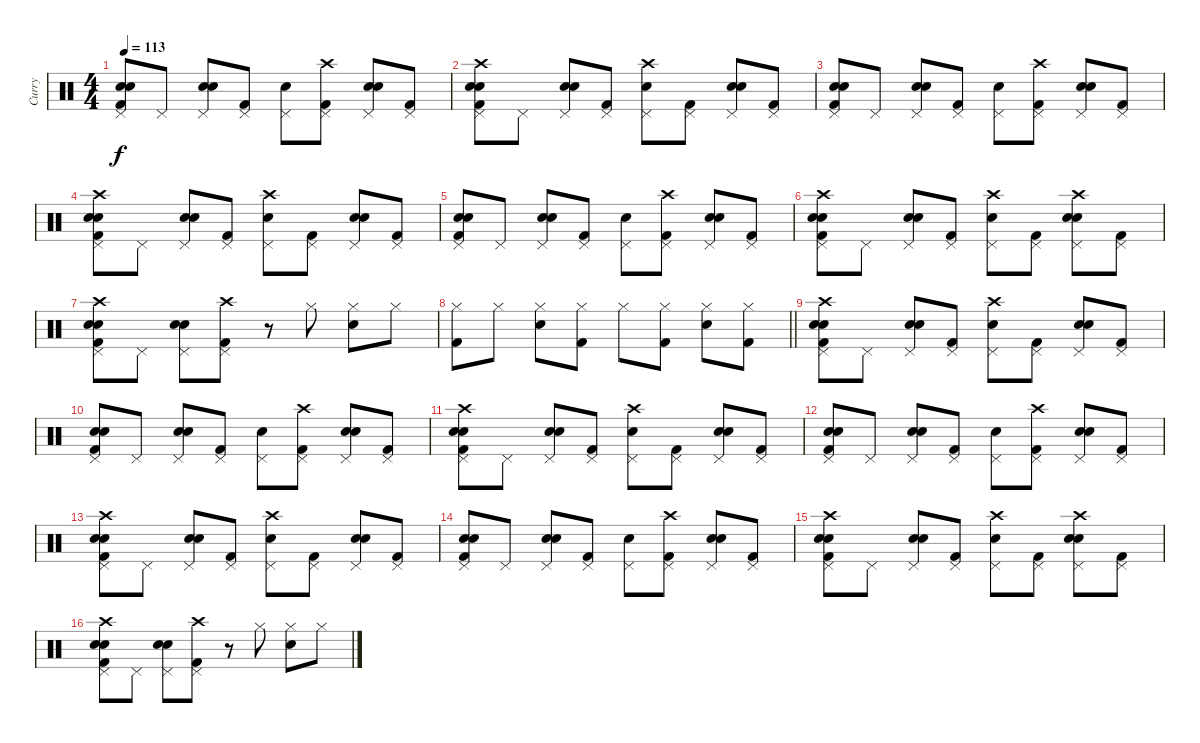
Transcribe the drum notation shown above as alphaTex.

\track ("Curry" "Curry") {instrument percussion}
\staff {score}
\articulation defaults
\ts (4 4)
\tempo 113
\clef neutral
\ks c
("Pedal Hi-Hat (hit)" "Kick (hit) 2" "Electric Snare (hit)" "Snare (hit) 2").8{dy f} "Pedal Hi-Hat (hit)".8 ("Pedal Hi-Hat (hit)" "Electric Snare (hit)" "Snare (hit) 2").8 ("Pedal Hi-Hat (hit)" "Kick (hit) 2").8 ("Pedal Hi-Hat (hit)" "Snare (hit) 2").8 ("Pedal Hi-Hat (hit)" "Kick (hit) 2" "Crash high (hit)").8 ("Pedal Hi-Hat (hit)" "Electric Snare (hit)" "Snare (hit) 2").8 ("Pedal Hi-Hat (hit)" "Kick (hit) 2").8 |
("Pedal Hi-Hat (hit)" "Kick (hit) 2" "Electric Snare (hit)" "Snare (hit) 2" "Crash high (hit)").8 "Pedal Hi-Hat (hit)".8 ("Pedal Hi-Hat (hit)" "Electric Snare (hit)" "Snare (hit) 2").8 ("Pedal Hi-Hat (hit)" "Kick (hit) 2").8 ("Pedal Hi-Hat (hit)" "Snare (hit) 2" "Crash high (hit)").8 ("Pedal Hi-Hat (hit)" "Kick (hit) 2").8 ("Pedal Hi-Hat (hit)" "Electric Snare (hit)" "Snare (hit) 2").8 ("Pedal Hi-Hat (hit)" "Kick (hit) 2").8 |
("Pedal Hi-Hat (hit)" "Kick (hit) 2" "Electric Snare (hit)" "Snare (hit) 2").8 "Pedal Hi-Hat (hit)".8 ("Pedal Hi-Hat (hit)" "Electric Snare (hit)" "Snare (hit) 2").8 ("Pedal Hi-Hat (hit)" "Kick (hit) 2").8 ("Pedal Hi-Hat (hit)" "Snare (hit) 2").8 ("Pedal Hi-Hat (hit)" "Kick (hit) 2" "Crash high (hit)").8 ("Pedal Hi-Hat (hit)" "Electric Snare (hit)" "Snare (hit) 2").8 ("Pedal Hi-Hat (hit)" "Kick (hit) 2").8 |
("Pedal Hi-Hat (hit)" "Kick (hit) 2" "Electric Snare (hit)" "Snare (hit) 2" "Crash high (hit)").8 "Pedal Hi-Hat (hit)".8 ("Pedal Hi-Hat (hit)" "Electric Snare (hit)" "Snare (hit) 2").8 ("Pedal Hi-Hat (hit)" "Kick (hit) 2").8 ("Pedal Hi-Hat (hit)" "Snare (hit) 2" "Crash high (hit)").8 ("Pedal Hi-Hat (hit)" "Kick (hit) 2").8 ("Pedal Hi-Hat (hit)" "Electric Snare (hit)" "Snare (hit) 2").8 ("Pedal Hi-Hat (hit)" "Kick (hit) 2").8 |
("Pedal Hi-Hat (hit)" "Kick (hit) 2" "Electric Snare (hit)" "Snare (hit) 2").8 "Pedal Hi-Hat (hit)".8 ("Pedal Hi-Hat (hit)" "Electric Snare (hit)" "Snare (hit) 2").8 ("Pedal Hi-Hat (hit)" "Kick (hit) 2").8 ("Pedal Hi-Hat (hit)" "Snare (hit) 2").8 ("Pedal Hi-Hat (hit)" "Kick (hit) 2" "Crash high (hit)").8 ("Pedal Hi-Hat (hit)" "Electric Snare (hit)" "Snare (hit) 2").8 ("Pedal Hi-Hat (hit)" "Kick (hit) 2").8 |
("Pedal Hi-Hat (hit)" "Kick (hit) 2" "Electric Snare (hit)" "Snare (hit) 2" "Crash high (hit)").8 "Pedal Hi-Hat (hit)".8 ("Pedal Hi-Hat (hit)" "Electric Snare (hit)" "Snare (hit) 2").8 ("Pedal Hi-Hat (hit)" "Kick (hit) 2").8 ("Pedal Hi-Hat (hit)" "Snare (hit) 2" "Crash high (hit)").8 ("Pedal Hi-Hat (hit)" "Kick (hit) 2").8 ("Pedal Hi-Hat (hit)" "Electric Snare (hit)" "Snare (hit) 2" "Crash high (hit)").8 ("Pedal Hi-Hat (hit)" "Kick (hit) 2").8 |
("Pedal Hi-Hat (hit)" "Kick (hit) 2" "Electric Snare (hit)" "Snare (hit) 2" "Crash high (hit)").8 "Pedal Hi-Hat (hit)".8 ("Pedal Hi-Hat (hit)" "Electric Snare (hit)" "Snare (hit) 2").8 ("Pedal Hi-Hat (hit)" "Kick (hit) 2" "Crash high (hit)").8 r.8 "Hi-Hat (closed)".8 ("Hi-Hat (closed)" "Snare (hit) 2").8 "Hi-Hat (closed)".8 |
\barLineRight lightlight
("Hi-Hat (closed)" "Kick (hit) 2").8 "Hi-Hat (closed)".8 ("Hi-Hat (closed)" "Snare (hit) 2").8 ("Hi-Hat (closed)" "Kick (hit) 2").8 "Hi-Hat (closed)".8 ("Hi-Hat (closed)" "Kick (hit) 2").8 ("Hi-Hat (closed)" "Snare (hit) 2").8 ("Hi-Hat (closed)" "Kick (hit) 2").8 |
("Pedal Hi-Hat (hit)" "Kick (hit) 2" "Electric Snare (hit)" "Snare (hit) 2" "Crash high (hit)").8 "Pedal Hi-Hat (hit)".8 ("Pedal Hi-Hat (hit)" "Electric Snare (hit)" "Snare (hit) 2").8 ("Pedal Hi-Hat (hit)" "Kick (hit) 2").8 ("Pedal Hi-Hat (hit)" "Snare (hit) 2" "Crash high (hit)").8 ("Pedal Hi-Hat (hit)" "Kick (hit) 2").8 ("Pedal Hi-Hat (hit)" "Electric Snare (hit)" "Snare (hit) 2").8 ("Pedal Hi-Hat (hit)" "Kick (hit) 2").8 |
("Pedal Hi-Hat (hit)" "Kick (hit) 2" "Electric Snare (hit)" "Snare (hit) 2").8 "Pedal Hi-Hat (hit)".8 ("Pedal Hi-Hat (hit)" "Electric Snare (hit)" "Snare (hit) 2").8 ("Pedal Hi-Hat (hit)" "Kick (hit) 2").8 ("Pedal Hi-Hat (hit)" "Snare (hit) 2").8 ("Pedal Hi-Hat (hit)" "Kick (hit) 2" "Crash high (hit)").8 ("Pedal Hi-Hat (hit)" "Electric Snare (hit)" "Snare (hit) 2").8 ("Pedal Hi-Hat (hit)" "Kick (hit) 2").8 |
("Pedal Hi-Hat (hit)" "Kick (hit) 2" "Electric Snare (hit)" "Snare (hit) 2" "Crash high (hit)").8 "Pedal Hi-Hat (hit)".8 ("Pedal Hi-Hat (hit)" "Electric Snare (hit)" "Snare (hit) 2").8 ("Pedal Hi-Hat (hit)" "Kick (hit) 2").8 ("Pedal Hi-Hat (hit)" "Snare (hit) 2" "Crash high (hit)").8 ("Pedal Hi-Hat (hit)" "Kick (hit) 2").8 ("Pedal Hi-Hat (hit)" "Electric Snare (hit)" "Snare (hit) 2").8 ("Pedal Hi-Hat (hit)" "Kick (hit) 2").8 |
("Pedal Hi-Hat (hit)" "Kick (hit) 2" "Electric Snare (hit)" "Snare (hit) 2").8 "Pedal Hi-Hat (hit)".8 ("Pedal Hi-Hat (hit)" "Electric Snare (hit)" "Snare (hit) 2").8 ("Pedal Hi-Hat (hit)" "Kick (hit) 2").8 ("Pedal Hi-Hat (hit)" "Snare (hit) 2").8 ("Pedal Hi-Hat (hit)" "Kick (hit) 2" "Crash high (hit)").8 ("Pedal Hi-Hat (hit)" "Electric Snare (hit)" "Snare (hit) 2").8 ("Pedal Hi-Hat (hit)" "Kick (hit) 2").8 |
("Pedal Hi-Hat (hit)" "Kick (hit) 2" "Electric Snare (hit)" "Snare (hit) 2" "Crash high (hit)").8 "Pedal Hi-Hat (hit)".8 ("Pedal Hi-Hat (hit)" "Electric Snare (hit)" "Snare (hit) 2").8 ("Pedal Hi-Hat (hit)" "Kick (hit) 2").8 ("Pedal Hi-Hat (hit)" "Snare (hit) 2" "Crash high (hit)").8 ("Pedal Hi-Hat (hit)" "Kick (hit) 2").8 ("Pedal Hi-Hat (hit)" "Electric Snare (hit)" "Snare (hit) 2").8 ("Pedal Hi-Hat (hit)" "Kick (hit) 2").8 |
("Pedal Hi-Hat (hit)" "Kick (hit) 2" "Electric Snare (hit)" "Snare (hit) 2").8 "Pedal Hi-Hat (hit)".8 ("Pedal Hi-Hat (hit)" "Electric Snare (hit)" "Snare (hit) 2").8 ("Pedal Hi-Hat (hit)" "Kick (hit) 2").8 ("Pedal Hi-Hat (hit)" "Snare (hit) 2").8 ("Pedal Hi-Hat (hit)" "Kick (hit) 2" "Crash high (hit)").8 ("Pedal Hi-Hat (hit)" "Electric Snare (hit)" "Snare (hit) 2").8 ("Pedal Hi-Hat (hit)" "Kick (hit) 2").8 |
("Pedal Hi-Hat (hit)" "Kick (hit) 2" "Electric Snare (hit)" "Snare (hit) 2" "Crash high (hit)").8 "Pedal Hi-Hat (hit)".8 ("Pedal Hi-Hat (hit)" "Electric Snare (hit)" "Snare (hit) 2").8 ("Pedal Hi-Hat (hit)" "Kick (hit) 2").8 ("Pedal Hi-Hat (hit)" "Snare (hit) 2" "Crash high (hit)").8 ("Pedal Hi-Hat (hit)" "Kick (hit) 2").8 ("Pedal Hi-Hat (hit)" "Electric Snare (hit)" "Snare (hit) 2" "Crash high (hit)").8 ("Pedal Hi-Hat (hit)" "Kick (hit) 2").8 |
("Pedal Hi-Hat (hit)" "Kick (hit) 2" "Electric Snare (hit)" "Snare (hit) 2" "Crash high (hit)").8 "Pedal Hi-Hat (hit)".8 ("Pedal Hi-Hat (hit)" "Electric Snare (hit)" "Snare (hit) 2").8 ("Pedal Hi-Hat (hit)" "Kick (hit) 2" "Crash high (hit)").8 r.8 "Hi-Hat (closed)".8 ("Hi-Hat (closed)" "Snare (hit) 2").8 "Hi-Hat (closed)".8
